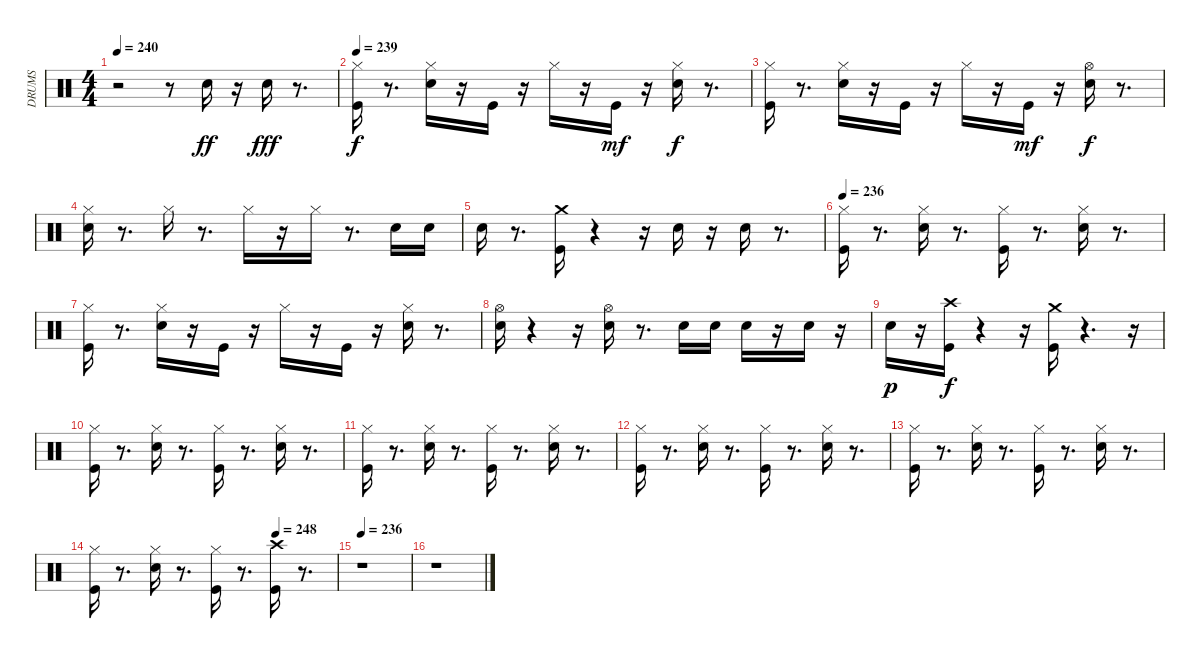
\track ("DRUMS" "DRUMS") {instrument percussion}
\staff {score}
\articulation defaults
\ts (4 4)
\tempo 240
\clef neutral
\ks c
r.2{dy f} r.8 "Electric Snare (hit)".16{dy ff} r.16 "Electric Snare (hit)".16{dy fff} r.8{d} |
\tempo 239
("Kick (hit)" "Hi-Hat (closed)").16{dy f} r.8{d} ("Electric Snare (hit)" "Hi-Hat (closed)").16 r.16 "Kick (hit)".16 r.16 "Hi-Hat (closed)".16 r.16 "Kick (hit)".16{dy mf} r.16 ("Hi-Hat (closed)" "Electric Snare (hit)").16{dy f} r.8{d} |
("Kick (hit)" "Hi-Hat (closed)").16 r.8{d} ("Electric Snare (hit)" "Hi-Hat (closed)").16 r.16 "Kick (hit)".16 r.16 "Hi-Hat (closed)".16 r.16 "Kick (hit)".16{dy mf} r.16 ("Electric Snare (hit)" "Hi-Hat (open)").16{dy f} r.8{d} |
("Electric Snare (hit)" "Hi-Hat (closed)").16 r.8{d} "Hi-Hat (closed)".16 r.8{d} "Hi-Hat (closed)".16 r.16 "Hi-Hat (closed)".16 r.8{d} "Electric Snare (hit)".16 "Electric Snare (hit)".16 |
"Electric Snare (hit)".16 r.8{d} ("Crash medium (hit)" "Kick (hit)").16 r.4 r.16 "Electric Snare (hit)".16 r.16 "Electric Snare (hit)".16 r.8{d} |
\tempo 236
("Kick (hit)" "Hi-Hat (closed)").16 r.8{d} ("Electric Snare (hit)" "Hi-Hat (closed)").16 r.8{d} ("Kick (hit)" "Hi-Hat (closed)").16 r.8{d} ("Electric Snare (hit)" "Hi-Hat (closed)").16 r.8{d} |
("Kick (hit)" "Hi-Hat (closed)").16 r.8{d} ("Electric Snare (hit)" "Hi-Hat (closed)").16 r.16 "Kick (hit)".16 r.16 "Hi-Hat (closed)".16 r.16 "Kick (hit)".16 r.16 ("Electric Snare (hit)" "Hi-Hat (closed)").16 r.8{d} |
("Hi-Hat (open)" "Electric Snare (hit)").16 r.4 r.16 ("Electric Snare (hit)" "Hi-Hat (open)").16 r.8{d} "Electric Snare (hit)".16 "Electric Snare (hit)".16 "Electric Snare (hit)".16 r.16 "Electric Snare (hit)".16 r.16 |
"Electric Snare (hit)".16{dy p} r.16 ("Crash high (hit)" "Kick (hit)").16{dy f} r.4 r.16 ("Crash medium (hit)" "Kick (hit)").16 r.4{d} r.16 |
("Kick (hit)" "Hi-Hat (closed)").16 r.8{d} ("Electric Snare (hit)" "Hi-Hat (closed)").16 r.8{d} ("Kick (hit)" "Hi-Hat (closed)").16 r.8{d} ("Electric Snare (hit)" "Hi-Hat (closed)").16 r.8{d} |
("Kick (hit)" "Hi-Hat (closed)").16 r.8{d} ("Electric Snare (hit)" "Hi-Hat (closed)").16 r.8{d} ("Kick (hit)" "Hi-Hat (closed)").16 r.8{d} ("Electric Snare (hit)" "Hi-Hat (closed)").16 r.8{d} |
("Kick (hit)" "Hi-Hat (closed)").16 r.8{d} ("Electric Snare (hit)" "Hi-Hat (closed)").16 r.8{d} ("Kick (hit)" "Hi-Hat (closed)").16 r.8{d} ("Electric Snare (hit)" "Hi-Hat (closed)").16 r.8{d} |
("Kick (hit)" "Hi-Hat (closed)").16 r.8{d} ("Electric Snare (hit)" "Hi-Hat (closed)").16 r.8{d} ("Kick (hit)" "Hi-Hat (closed)").16 r.8{d} ("Electric Snare (hit)" "Hi-Hat (closed)").16 r.8{d} |
\tempo (248 0.75)
("Kick (hit)" "Hi-Hat (closed)").16 r.8{d} ("Hi-Hat (closed)" "Electric Snare (hit)").16 r.8{d} ("Hi-Hat (closed)" "Kick (hit)").16 r.8{d} ("Kick (hit)" "Crash high (hit)").16 r.8{d} |
\tempo 236
r.1 |
r.1
